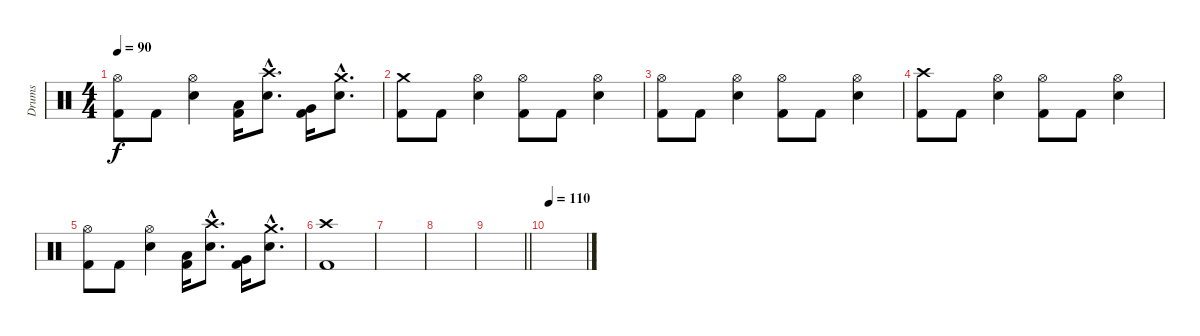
\track ("Drums" "Drums") {instrument percussion}
\staff {score}
\articulation defaults
\ts (4 4)
\tempo 90
\clef neutral
\ks c
("Kick (hit) 2" "Hi-Hat (open)").8{dy f} "Kick (hit) 2".8 ("Snare (hit) 2" "Hi-Hat (open)").4 ("Kick (hit) 2" "Low Tom (hit)").16 ("Snare (hit) 2"{hac} "Crash high (hit)"{hac}).8{d} ("Kick (hit) 2" "Very Low Tom (hit)").16 ("Snare (hit) 2"{hac} "Crash medium (hit)"{hac}).8{d} |
("Kick (hit) 2" "Crash medium (hit)").8 "Kick (hit) 2".8 ("Snare (hit) 2" "Hi-Hat (open)").4 ("Kick (hit) 2" "Hi-Hat (open)").8 "Kick (hit) 2".8 ("Snare (hit) 2" "Hi-Hat (open)").4 |
("Kick (hit) 2" "Hi-Hat (open)").8 "Kick (hit) 2".8 ("Snare (hit) 2" "Hi-Hat (open)").4 ("Kick (hit) 2" "Hi-Hat (open)").8 "Kick (hit) 2".8 ("Snare (hit) 2" "Hi-Hat (open)").4 |
("Kick (hit) 2" "Crash high (hit)").8 "Kick (hit) 2".8 ("Snare (hit) 2" "Hi-Hat (open)").4 ("Kick (hit) 2" "Hi-Hat (open)").8 "Kick (hit) 2".8 ("Snare (hit) 2" "Hi-Hat (open)").4 |
("Kick (hit) 2" "Hi-Hat (open)").8 "Kick (hit) 2".8 ("Snare (hit) 2" "Hi-Hat (open)").4 ("Kick (hit) 2" "Low Tom (hit)").16 ("Snare (hit) 2"{hac} "Crash high (hit)"{hac}).8{d} ("Kick (hit) 2" "Very Low Tom (hit)").16 ("Snare (hit) 2"{hac} "Crash medium (hit)"{hac}).8{d} |
("Kick (hit) 2" "Crash high (hit)").1 |
|
|
\barLineRight lightlight
|
\tempo 110
